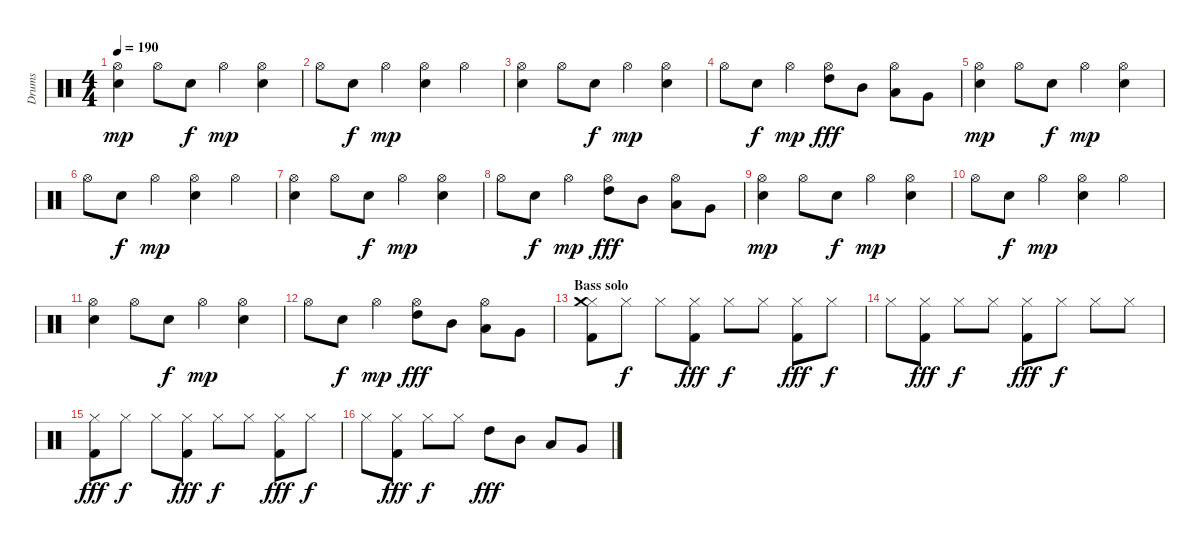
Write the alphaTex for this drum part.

\track ("Drums" "Drums") {instrument percussion}
\staff {score}
\articulation defaults
\ts (4 4)
\tempo 190
\clef neutral
\ks c
("Hi-Hat (open)" "Snare (hit) 2").4{dy mp} "Hi-Hat (open)".8 "Snare (hit) 2".8{dy f} "Hi-Hat (open)".4{dy mp} ("Hi-Hat (open)" "Snare (hit) 2").4 |
"Hi-Hat (open)".8 "Snare (hit) 2".8{dy f} "Hi-Hat (open)".4{dy mp} ("Hi-Hat (open)" "Snare (hit) 2").4 "Hi-Hat (open)".4 |
("Hi-Hat (open)" "Snare (hit) 2").4 "Hi-Hat (open)".8 "Snare (hit) 2".8{dy f} "Hi-Hat (open)".4{dy mp} ("Hi-Hat (open)" "Snare (hit) 2").4 |
"Hi-Hat (open)".8 "Snare (hit) 2".8{dy f} "Hi-Hat (open)".4{dy mp} ("Hi-Hat (open)" "High Tom (hit)").8{dy fff} "Mid Tom (hit)".8 ("Hi-Hat (open)" "Low Tom (hit)").8 "Very Low Tom (hit)".8 |
("Hi-Hat (open)" "Snare (hit) 2").4{dy mp} "Hi-Hat (open)".8 "Snare (hit) 2".8{dy f} "Hi-Hat (open)".4{dy mp} ("Hi-Hat (open)" "Snare (hit) 2").4 |
"Hi-Hat (open)".8 "Snare (hit) 2".8{dy f} "Hi-Hat (open)".4{dy mp} ("Hi-Hat (open)" "Snare (hit) 2").4 "Hi-Hat (open)".4 |
("Hi-Hat (open)" "Snare (hit) 2").4 "Hi-Hat (open)".8 "Snare (hit) 2".8{dy f} "Hi-Hat (open)".4{dy mp} ("Hi-Hat (open)" "Snare (hit) 2").4 |
"Hi-Hat (open)".8 "Snare (hit) 2".8{dy f} "Hi-Hat (open)".4{dy mp} ("Hi-Hat (open)" "High Tom (hit)").8{dy fff} "Mid Tom (hit)".8 ("Hi-Hat (open)" "Low Tom (hit)").8 "Very Low Tom (hit)".8 |
("Hi-Hat (open)" "Snare (hit) 2").4{dy mp} "Hi-Hat (open)".8 "Snare (hit) 2".8{dy f} "Hi-Hat (open)".4{dy mp} ("Hi-Hat (open)" "Snare (hit) 2").4 |
"Hi-Hat (open)".8 "Snare (hit) 2".8{dy f} "Hi-Hat (open)".4{dy mp} ("Hi-Hat (open)" "Snare (hit) 2").4 "Hi-Hat (open)".4 |
("Hi-Hat (open)" "Snare (hit) 2").4 "Hi-Hat (open)".8 "Snare (hit) 2".8{dy f} "Hi-Hat (open)".4{dy mp} ("Hi-Hat (open)" "Snare (hit) 2").4 |
"Hi-Hat (open)".8 "Snare (hit) 2".8{dy f} "Hi-Hat (open)".4{dy mp} ("Hi-Hat (open)" "High Tom (hit)").8{dy fff} "Mid Tom (hit)".8 ("Hi-Hat (open)" "Low Tom (hit)").8 "Very Low Tom (hit)".8 |
\section ("" "Bass solo")
("Hi-Hat (closed)" "Kick (hit) 2" "Crash medium (hit)").8 "Hi-Hat (closed)".8{dy f} "Hi-Hat (closed)".8 ("Hi-Hat (closed)" "Kick (hit) 2").8{dy fff} "Hi-Hat (closed)".8{dy f} "Hi-Hat (closed)".8 ("Hi-Hat (closed)" "Kick (hit) 2").8{dy fff} "Hi-Hat (closed)".8{dy f} |
"Hi-Hat (closed)".8 ("Hi-Hat (closed)" "Kick (hit) 2").8{dy fff} "Hi-Hat (closed)".8{dy f} "Hi-Hat (closed)".8 ("Hi-Hat (closed)" "Kick (hit) 2").8{dy fff} "Hi-Hat (closed)".8{dy f} "Hi-Hat (closed)".8 "Hi-Hat (closed)".8 |
("Hi-Hat (closed)" "Kick (hit) 2").8{dy fff} "Hi-Hat (closed)".8{dy f} "Hi-Hat (closed)".8 ("Hi-Hat (closed)" "Kick (hit) 2").8{dy fff} "Hi-Hat (closed)".8{dy f} "Hi-Hat (closed)".8 ("Hi-Hat (closed)" "Kick (hit) 2").8{dy fff} "Hi-Hat (closed)".8{dy f} |
"Hi-Hat (closed)".8 ("Hi-Hat (closed)" "Kick (hit) 2").8{dy fff} "Hi-Hat (closed)".8{dy f} "Hi-Hat (closed)".8 "High Tom (hit)".8{dy fff} "Mid Tom (hit)".8 "Low Tom (hit)".8 "Very Low Tom (hit)".8
